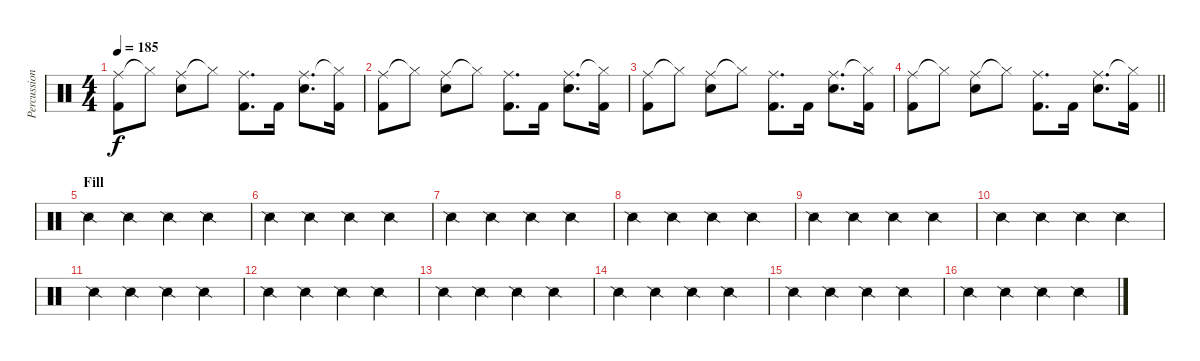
\track ("Percussion" "Percussion") {instrument percussion}
\staff {score}
\articulation defaults
\ts (4 4)
\tempo 185
\clef neutral
\ks c
("Ride (middle)" "Kick (hit) 2").8{dy f} "Hi-Hat (closed)"{t}.8 ("Ride (middle)" "Snare (hit) 2").8 "Hi-Hat (closed)"{t}.8 ("Ride (middle)" "Kick (hit) 2").8{d} "Kick (hit) 2".16 ("Ride (middle)" "Snare (hit) 2").8{d} ("Hi-Hat (closed)"{t} "Kick (hit) 2").16 |
("Ride (middle)" "Kick (hit) 2").8 "Hi-Hat (closed)"{t}.8 ("Ride (middle)" "Snare (hit) 2").8 "Hi-Hat (closed)"{t}.8 ("Ride (middle)" "Kick (hit) 2").8{d} "Kick (hit) 2".16 ("Ride (middle)" "Snare (hit) 2").8{d} ("Hi-Hat (closed)"{t} "Kick (hit) 2").16 |
("Ride (middle)" "Kick (hit) 2").8 "Hi-Hat (closed)"{t}.8 ("Ride (middle)" "Snare (hit) 2").8 "Hi-Hat (closed)"{t}.8 ("Ride (middle)" "Kick (hit) 2").8{d} "Kick (hit) 2".16 ("Ride (middle)" "Snare (hit) 2").8{d} ("Hi-Hat (closed)"{t} "Kick (hit) 2").16 |
\barLineRight lightlight
("Ride (middle)" "Kick (hit) 2").8 "Hi-Hat (closed)"{t}.8 ("Ride (middle)" "Snare (hit) 2").8 "Hi-Hat (closed)"{t}.8 ("Ride (middle)" "Kick (hit) 2").8{d} "Kick (hit) 2".16 ("Ride (middle)" "Snare (hit) 2").8{d} ("Hi-Hat (closed)"{t} "Kick (hit) 2").16 |
\section ("" "Fill")
"Snare (side stick) 2".4 "Snare (side stick) 2".4 "Snare (side stick) 2".4 "Snare (side stick) 2".4 |
"Snare (side stick) 2".4 "Snare (side stick) 2".4 "Snare (side stick) 2".4 "Snare (side stick) 2".4 |
"Snare (side stick) 2".4 "Snare (side stick) 2".4 "Snare (side stick) 2".4 "Snare (side stick) 2".4 |
"Snare (side stick) 2".4 "Snare (side stick) 2".4 "Snare (side stick) 2".4 "Snare (side stick) 2".4 |
"Snare (side stick) 2".4 "Snare (side stick) 2".4 "Snare (side stick) 2".4 "Snare (side stick) 2".4 |
"Snare (side stick) 2".4 "Snare (side stick) 2".4 "Snare (side stick) 2".4 "Snare (side stick) 2".4 |
"Snare (side stick) 2".4 "Snare (side stick) 2".4 "Snare (side stick) 2".4 "Snare (side stick) 2".4 |
"Snare (side stick) 2".4 "Snare (side stick) 2".4 "Snare (side stick) 2".4 "Snare (side stick) 2".4 |
"Snare (side stick) 2".4 "Snare (side stick) 2".4 "Snare (side stick) 2".4 "Snare (side stick) 2".4 |
"Snare (side stick) 2".4 "Snare (side stick) 2".4 "Snare (side stick) 2".4 "Snare (side stick) 2".4 |
"Snare (side stick) 2".4 "Snare (side stick) 2".4 "Snare (side stick) 2".4 "Snare (side stick) 2".4 |
"Snare (side stick) 2".4 "Snare (side stick) 2".4 "Snare (side stick) 2".4 "Snare (side stick) 2".4
